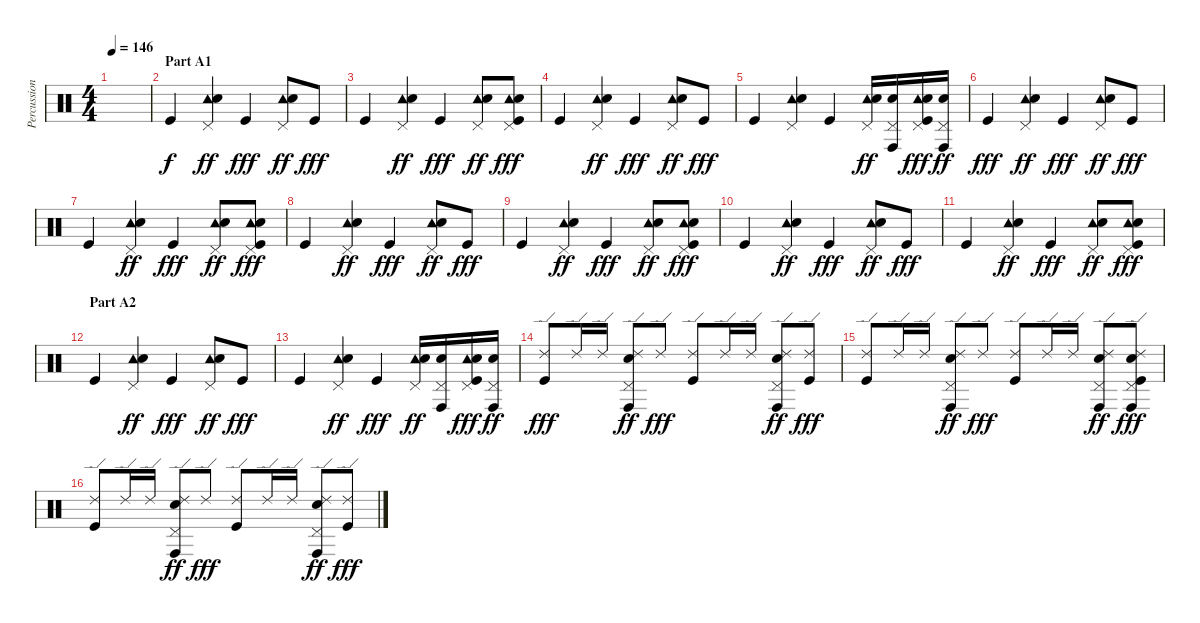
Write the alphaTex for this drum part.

\track ("Percussion" "Percussion") {instrument percussion}
\staff {score}
\articulation defaults
\ts (4 4)
\tempo 146
\clef neutral
\ks c
|
\section ("" "Part A1")
"Kick (hit)".4 ("Pedal Hi-Hat (hit)" "Tambourine (hit)" "Electric Snare (hit)").4{dy ff} "Kick (hit)".4{dy fff} ("Pedal Hi-Hat (hit)" "Tambourine (hit)" "Electric Snare (hit)").8{dy ff} "Kick (hit)".8{dy fff} |
"Kick (hit)".4 ("Pedal Hi-Hat (hit)" "Tambourine (hit)" "Electric Snare (hit)").4{dy ff} "Kick (hit)".4{dy fff} ("Pedal Hi-Hat (hit)" "Tambourine (hit)" "Electric Snare (hit)").8{dy ff} ("Pedal Hi-Hat (hit)" "Tambourine (hit)" "Electric Snare (hit)" "Kick (hit)").8{dy fff} |
"Kick (hit)".4 ("Pedal Hi-Hat (hit)" "Tambourine (hit)" "Electric Snare (hit)").4{dy ff} "Kick (hit)".4{dy fff} ("Pedal Hi-Hat (hit)" "Tambourine (hit)" "Electric Snare (hit)").8{dy ff} "Kick (hit)".8{dy fff} |
"Kick (hit)".4 ("Pedal Hi-Hat (hit)" "Tambourine (hit)" "Electric Snare (hit)").4 "Kick (hit)".4 ("Pedal Hi-Hat (hit)" "Tambourine (hit)" "Electric Snare (hit)").16{dy ff} ("Pedal Hi-Hat (hit)" "Conga high (hit)" "Electric Snare (hit)").16 ("Pedal Hi-Hat (hit)" "Tambourine (hit)" "Electric Snare (hit)" "Kick (hit)").16{dy fff} ("Pedal Hi-Hat (hit)" "Conga high (hit)" "Electric Snare (hit)").16{dy ff} |
"Kick (hit)".4{dy fff} ("Pedal Hi-Hat (hit)" "Tambourine (hit)" "Electric Snare (hit)").4{dy ff} "Kick (hit)".4{dy fff} ("Pedal Hi-Hat (hit)" "Tambourine (hit)" "Electric Snare (hit)").8{dy ff} "Kick (hit)".8{dy fff} |
"Kick (hit)".4 ("Pedal Hi-Hat (hit)" "Tambourine (hit)" "Electric Snare (hit)").4{dy ff} "Kick (hit)".4{dy fff} ("Pedal Hi-Hat (hit)" "Tambourine (hit)" "Electric Snare (hit)").8{dy ff} ("Pedal Hi-Hat (hit)" "Tambourine (hit)" "Electric Snare (hit)" "Kick (hit)").8{dy fff} |
"Kick (hit)".4 ("Pedal Hi-Hat (hit)" "Tambourine (hit)" "Electric Snare (hit)").4{dy ff} "Kick (hit)".4{dy fff} ("Pedal Hi-Hat (hit)" "Tambourine (hit)" "Electric Snare (hit)").8{dy ff} "Kick (hit)".8{dy fff} |
"Kick (hit)".4 ("Pedal Hi-Hat (hit)" "Tambourine (hit)" "Electric Snare (hit)").4{dy ff} "Kick (hit)".4{dy fff} ("Pedal Hi-Hat (hit)" "Tambourine (hit)" "Electric Snare (hit)").8{dy ff} ("Pedal Hi-Hat (hit)" "Tambourine (hit)" "Electric Snare (hit)" "Kick (hit)").8{dy fff} |
"Kick (hit)".4 ("Pedal Hi-Hat (hit)" "Tambourine (hit)" "Electric Snare (hit)").4{dy ff} "Kick (hit)".4{dy fff} ("Pedal Hi-Hat (hit)" "Tambourine (hit)" "Electric Snare (hit)").8{dy ff} "Kick (hit)".8{dy fff} |
"Kick (hit)".4 ("Pedal Hi-Hat (hit)" "Tambourine (hit)" "Electric Snare (hit)").4{dy ff} "Kick (hit)".4{dy fff} ("Pedal Hi-Hat (hit)" "Tambourine (hit)" "Electric Snare (hit)").8{dy ff} ("Pedal Hi-Hat (hit)" "Tambourine (hit)" "Electric Snare (hit)" "Kick (hit)").8{dy fff} |
\section ("" "Part A2")
"Kick (hit)".4 ("Pedal Hi-Hat (hit)" "Tambourine (hit)" "Electric Snare (hit)").4{dy ff} "Kick (hit)".4{dy fff} ("Pedal Hi-Hat (hit)" "Tambourine (hit)" "Electric Snare (hit)").8{dy ff} "Kick (hit)".8{dy fff} |
"Kick (hit)".4 ("Pedal Hi-Hat (hit)" "Tambourine (hit)" "Electric Snare (hit)").4{dy ff} "Kick (hit)".4{dy fff} ("Pedal Hi-Hat (hit)" "Tambourine (hit)" "Electric Snare (hit)").16{dy ff} ("Pedal Hi-Hat (hit)" "Conga high (hit)" "Electric Snare (hit)").16 ("Pedal Hi-Hat (hit)" "Tambourine (hit)" "Electric Snare (hit)" "Kick (hit)").16{dy fff} ("Pedal Hi-Hat (hit)" "Conga high (hit)" "Electric Snare (hit)").16{dy ff} |
("Ride (edge) 2" "Kick (hit)").8{dy fff} "Ride (edge) 2".16 "Ride (edge) 2".16 ("Ride (edge) 2" "Pedal Hi-Hat (hit)" "Conga high (hit)" "Electric Snare (hit)").8{dy ff} "Ride (edge) 2".8{dy fff} ("Ride (edge) 2" "Kick (hit)").8 "Ride (edge) 2".16 "Ride (edge) 2".16 ("Ride (edge) 2" "Pedal Hi-Hat (hit)" "Conga high (hit)" "Electric Snare (hit)").8{dy ff} ("Ride (edge) 2" "Kick (hit)").8{dy fff} |
("Ride (edge) 2" "Kick (hit)").8 "Ride (edge) 2".16 "Ride (edge) 2".16 ("Ride (edge) 2" "Pedal Hi-Hat (hit)" "Conga high (hit)" "Electric Snare (hit)").8{dy ff} "Ride (edge) 2".8{dy fff} ("Ride (edge) 2" "Kick (hit)").8 "Ride (edge) 2".16 "Ride (edge) 2".16 ("Ride (edge) 2" "Pedal Hi-Hat (hit)" "Conga high (hit)" "Electric Snare (hit)").8{dy ff} ("Ride (edge) 2" "Pedal Hi-Hat (hit)" "Conga high (hit)" "Electric Snare (hit)" "Kick (hit)").8{dy fff} |
("Ride (edge) 2" "Kick (hit)").8 "Ride (edge) 2".16 "Ride (edge) 2".16 ("Ride (edge) 2" "Pedal Hi-Hat (hit)" "Conga high (hit)" "Electric Snare (hit)").8{dy ff} "Ride (edge) 2".8{dy fff} ("Ride (edge) 2" "Kick (hit)").8 "Ride (edge) 2".16 "Ride (edge) 2".16 ("Ride (edge) 2" "Pedal Hi-Hat (hit)" "Conga high (hit)" "Electric Snare (hit)").8{dy ff} ("Ride (edge) 2" "Kick (hit)").8{dy fff}
